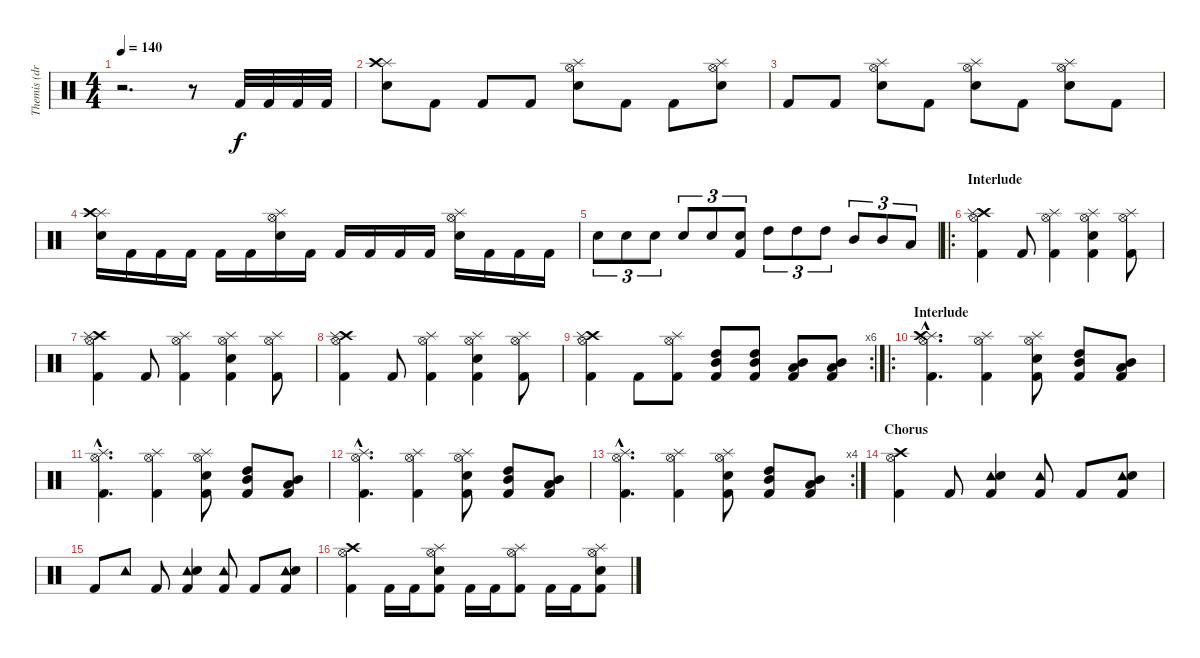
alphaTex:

\track ("Themis (drums)" "Themis (dr") {instrument percussion}
\staff {score}
\articulation defaults
\ts (4 4)
\tempo 140
\clef neutral
\ks c
r.2{d dy f} r.8 "Kick (hit) 2".32 "Kick (hit) 2".32 "Kick (hit) 2".32 "Kick (hit) 2".32 |
("Splash (hit)" "Crash high (hit)" "Electric Snare (hit)").8 "Kick (hit) 2".8 "Kick (hit) 2".8 "Kick (hit) 2".8 ("Splash (hit)" "Hi-Hat (open)" "Electric Snare (hit)").8 "Kick (hit) 2".8 "Kick (hit) 2".8 ("Splash (hit)" "Hi-Hat (open)" "Electric Snare (hit)").8 |
"Kick (hit) 2".8 "Kick (hit) 2".8 ("Splash (hit)" "Hi-Hat (open)" "Electric Snare (hit)").8 "Kick (hit) 2".8 ("Splash (hit)" "Hi-Hat (open)" "Electric Snare (hit)").8 "Kick (hit) 2".8 ("Splash (hit)" "Hi-Hat (open)" "Electric Snare (hit)").8 "Kick (hit) 2".8 |
("Splash (hit)" "Crash high (hit)" "Electric Snare (hit)").16 "Kick (hit) 2".16 "Kick (hit) 2".16 "Kick (hit) 2".16 "Kick (hit) 2".16 "Kick (hit) 2".16 ("Splash (hit)" "Hi-Hat (open)" "Electric Snare (hit)").16 "Kick (hit) 2".16 "Kick (hit) 2".16 "Kick (hit) 2".16 "Kick (hit) 2".16 "Kick (hit) 2".16 ("Splash (hit)" "Hi-Hat (open)" "Electric Snare (hit)").16 "Kick (hit) 2".16 "Kick (hit) 2".16 "Kick (hit) 2".16 |
"Electric Snare (hit)".8{tu (3 2)} "Electric Snare (hit)".8{tu (3 2)} "Electric Snare (hit)".8{tu (3 2)} "Electric Snare (hit)".8{tu (3 2)} "Electric Snare (hit)".8{tu (3 2)} ("Electric Snare (hit)" "Kick (hit) 2").8{tu (3 2)} "High Tom (hit)".8{tu (3 2)} "High Tom (hit)".8{tu (3 2)} "High Tom (hit)".8{tu (3 2)} "Mid Tom (hit)".8{tu (3 2)} "Mid Tom (hit)".8{tu (3 2)} "Low Tom (hit)".8{tu (3 2)} |
\ro
\section ("" "Interlude")
("Crash high (hit)" "Hi-Hat (open)" "Splash (hit)" "Kick (hit) 2").4 "Kick (hit) 2".8 ("Hi-Hat (open)" "Splash (hit)" "Kick (hit) 2").4 ("Hi-Hat (open)" "Splash (hit)" "Electric Snare (hit)" "Kick (hit) 2").4 ("Hi-Hat (open)" "Splash (hit)" "Kick (hit) 2").8 |
("Crash high (hit)" "Hi-Hat (open)" "Splash (hit)" "Kick (hit) 2").4 "Kick (hit) 2".8 ("Hi-Hat (open)" "Splash (hit)" "Kick (hit) 2").4 ("Hi-Hat (open)" "Splash (hit)" "Electric Snare (hit)" "Kick (hit) 2").4 ("Hi-Hat (open)" "Splash (hit)" "Kick (hit) 2").8 |
("Crash high (hit)" "Hi-Hat (open)" "Splash (hit)" "Kick (hit) 2").4 "Kick (hit) 2".8 ("Hi-Hat (open)" "Splash (hit)" "Kick (hit) 2").4 ("Hi-Hat (open)" "Splash (hit)" "Electric Snare (hit)" "Kick (hit) 2").4 ("Hi-Hat (open)" "Splash (hit)" "Kick (hit) 2").8 |
\rc 6
("Crash high (hit)" "Hi-Hat (open)" "Splash (hit)" "Kick (hit) 2").4 "Kick (hit) 2".8 ("Hi-Hat (open)" "Splash (hit)" "Kick (hit) 2").8 ("High Tom (hit)" "Mid Tom (hit)" "Kick (hit) 2").8 ("High Tom (hit)" "Mid Tom (hit)" "Kick (hit) 2").8 ("Mid Tom (hit)" "Low Tom (hit)" "Kick (hit) 2").8 ("Mid Tom (hit)" "Low Tom (hit)" "Kick (hit) 2").8 |
\ro
\section ("" "Interlude")
("Hi-Hat (open)"{hac} "Splash (hit)"{hac} "Crash high (hit)"{hac} "Kick (hit) 2"{hac}).4{d} ("Hi-Hat (open)" "Splash (hit)" "Kick (hit) 2").4 ("Hi-Hat (open)" "Splash (hit)" "Electric Snare (hit)" "Kick (hit) 2").8 ("High Tom (hit)" "Mid Tom (hit)" "Kick (hit) 2").8 ("Mid Tom (hit)" "Low Tom (hit)" "Kick (hit) 2").8 |
("Hi-Hat (open)"{hac} "Splash (hit)"{hac} "Kick (hit) 2"{hac}).4{d} ("Hi-Hat (open)" "Splash (hit)" "Kick (hit) 2").4 ("Hi-Hat (open)" "Splash (hit)" "Electric Snare (hit)" "Kick (hit) 2").8 ("High Tom (hit)" "Mid Tom (hit)" "Kick (hit) 2").8 ("Mid Tom (hit)" "Low Tom (hit)" "Kick (hit) 2").8 |
("Hi-Hat (open)"{hac} "Splash (hit)"{hac} "Kick (hit) 2"{hac}).4{d} ("Hi-Hat (open)" "Splash (hit)" "Kick (hit) 2").4 ("Hi-Hat (open)" "Splash (hit)" "Electric Snare (hit)" "Kick (hit) 2").8 ("High Tom (hit)" "Mid Tom (hit)" "Kick (hit) 2").8 ("Mid Tom (hit)" "Low Tom (hit)" "Kick (hit) 2").8 |
\rc 4
("Hi-Hat (open)"{hac} "Splash (hit)"{hac} "Kick (hit) 2"{hac}).4{d} ("Hi-Hat (open)" "Splash (hit)" "Kick (hit) 2").4 ("Hi-Hat (open)" "Splash (hit)" "Electric Snare (hit)" "Kick (hit) 2").8 ("High Tom (hit)" "Mid Tom (hit)" "Kick (hit) 2").8 ("Mid Tom (hit)" "Low Tom (hit)" "Kick (hit) 2").8 |
\section ("" "Chorus")
("Crash high (hit)" "Hi-Hat (open)" "Kick (hit) 2").4 "Kick (hit) 2".8 ("Tambourine (hit)" "Electric Snare (hit)" "Kick (hit) 2").4 ("Tambourine (hit)" "Kick (hit) 2").8 "Kick (hit) 2".8 ("Tambourine (hit)" "Electric Snare (hit)" "Kick (hit) 2").8 |
"Kick (hit) 2".8 "Tambourine (hit)".8 "Kick (hit) 2".8 ("Tambourine (hit)" "Electric Snare (hit)" "Kick (hit) 2").4 ("Tambourine (hit)" "Kick (hit) 2").8 "Kick (hit) 2".8 ("Tambourine (hit)" "Electric Snare (hit)" "Kick (hit) 2").8 |
("Crash high (hit)" "Hi-Hat (open)" "Kick (hit) 2").4 "Kick (hit) 2".16 "Kick (hit) 2".16 ("Splash (hit)" "Hi-Hat (open)" "Electric Snare (hit)" "Kick (hit) 2").8 "Kick (hit) 2".16 "Kick (hit) 2".16 ("Splash (hit)" "Hi-Hat (open)" "Kick (hit) 2").8 "Kick (hit) 2".16 "Kick (hit) 2".16 ("Splash (hit)" "Hi-Hat (open)" "Electric Snare (hit)" "Kick (hit) 2").8
